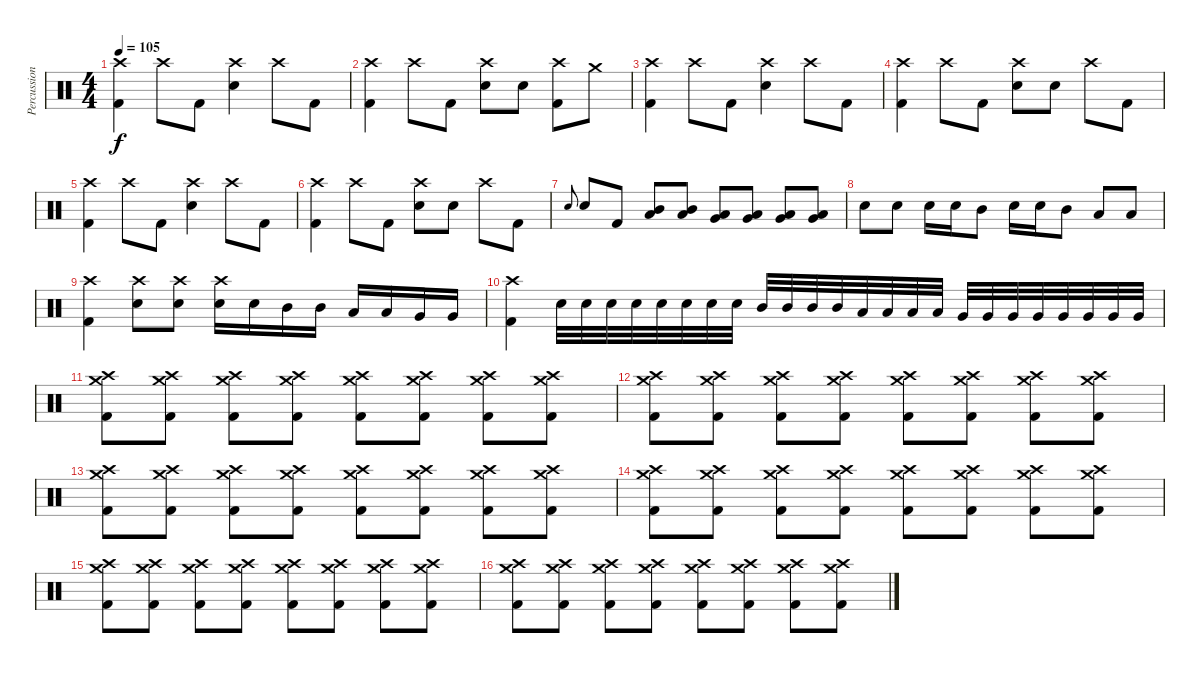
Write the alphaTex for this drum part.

\track ("Percussion" "Percussion") {instrument percussion}
\staff {score}
\articulation defaults
\ts (4 4)
\tempo 105
\clef neutral
\ks c
("Crash high (hit)" "Kick (hit) 2").4{dy f} "Crash high (hit)".8 "Kick (hit) 2".8 ("Crash high (hit)" "Electric Snare (hit)").4 "Crash high (hit)".8 "Kick (hit) 2".8 |
("Crash high (hit)" "Kick (hit) 2").4 "Crash high (hit)".8 "Kick (hit) 2".8 ("Crash high (hit)" "Electric Snare (hit)").8 "Electric Snare (hit)".8 ("Crash high (hit)" "Kick (hit) 2").8 "Crash medium (hit)".8 |
("Crash high (hit)" "Kick (hit) 2").4 "Crash high (hit)".8 "Kick (hit) 2".8 ("Crash high (hit)" "Electric Snare (hit)").4 "Crash high (hit)".8 "Kick (hit) 2".8 |
("Crash high (hit)" "Kick (hit) 2").4 "Crash high (hit)".8 "Kick (hit) 2".8 ("Crash high (hit)" "Electric Snare (hit)").8 "Electric Snare (hit)".8 "Crash high (hit)".8 "Kick (hit) 2".8 |
("Crash high (hit)" "Kick (hit) 2").4 "Crash high (hit)".8 "Kick (hit) 2".8 ("Crash high (hit)" "Electric Snare (hit)").4 "Crash high (hit)".8 "Kick (hit) 2".8 |
("Crash high (hit)" "Kick (hit) 2").4 "Crash high (hit)".8 "Kick (hit) 2".8 ("Crash high (hit)" "Electric Snare (hit)").8 "Electric Snare (hit)".8 "Crash high (hit)".8 "Kick (hit) 2".8 |
"Electric Snare (hit)".8{gr onbeat} "Electric Snare (hit)".8 "Kick (hit) 2".8 ("Low Tom (hit)" "Mid Tom (hit)").8 ("Low Tom (hit)" "Mid Tom (hit)").8 ("Very Low Tom (hit)" "Low Tom (hit)").8 ("Very Low Tom (hit)" "Low Tom (hit)").8 ("Low Floor Tom (hit)" "Very Low Tom (hit)").8 ("Low Floor Tom (hit)" "Very Low Tom (hit)").8 |
"Electric Snare (hit)".8 "Electric Snare (hit)".8 "Electric Snare (hit)".16 "Electric Snare (hit)".16 "Mid Tom (hit)".8 "Electric Snare (hit)".16 "Electric Snare (hit)".16 "Mid Tom (hit)".8 "Low Tom (hit)".8 "Low Tom (hit)".8 |
("Crash high (hit)" "Kick (hit) 2").4 ("Crash high (hit)" "Electric Snare (hit)").8 ("Crash high (hit)" "Electric Snare (hit)").8 ("Crash high (hit)" "Electric Snare (hit)").16 "Electric Snare (hit)".16 "Mid Tom (hit)".16 "Mid Tom (hit)".16 "Low Tom (hit)".16 "Low Tom (hit)".16 "Very Low Tom (hit)".16 "Very Low Tom (hit)".16 |
("Crash high (hit)" "Kick (hit) 2").4 "Electric Snare (hit)".32 "Electric Snare (hit)".32 "Electric Snare (hit)".32 "Electric Snare (hit)".32 "Electric Snare (hit)".32 "Electric Snare (hit)".32 "Electric Snare (hit)".32 "Electric Snare (hit)".32 "Mid Tom (hit)".32 "Mid Tom (hit)".32 "Mid Tom (hit)".32 "Mid Tom (hit)".32 "Low Tom (hit)".32 "Low Tom (hit)".32 "Low Tom (hit)".32 "Low Tom (hit)".32 "Very Low Tom (hit)".32 "Very Low Tom (hit)".32 "Very Low Tom (hit)".32 "Very Low Tom (hit)".32 "Very Low Tom (hit)".32 "Very Low Tom (hit)".32 "Very Low Tom (hit)".32 "Very Low Tom (hit)".32 |
("Crash high (hit)" "Crash medium (hit)" "Kick (hit) 2").8 ("Crash high (hit)" "Crash medium (hit)" "Kick (hit) 2").8 ("Crash high (hit)" "Crash medium (hit)" "Kick (hit) 2").8 ("Crash high (hit)" "Crash medium (hit)" "Kick (hit) 2").8 ("Crash high (hit)" "Crash medium (hit)" "Kick (hit) 2").8 ("Crash high (hit)" "Crash medium (hit)" "Kick (hit) 2").8 ("Crash high (hit)" "Crash medium (hit)" "Kick (hit) 2").8 ("Crash high (hit)" "Crash medium (hit)" "Kick (hit) 2").8 |
("Crash high (hit)" "Crash medium (hit)" "Kick (hit) 2").8 ("Crash high (hit)" "Crash medium (hit)" "Kick (hit) 2").8 ("Crash high (hit)" "Crash medium (hit)" "Kick (hit) 2").8 ("Crash high (hit)" "Crash medium (hit)" "Kick (hit) 2").8 ("Crash high (hit)" "Crash medium (hit)" "Kick (hit) 2").8 ("Crash high (hit)" "Crash medium (hit)" "Kick (hit) 2").8 ("Crash high (hit)" "Crash medium (hit)" "Kick (hit) 2").8 ("Crash high (hit)" "Crash medium (hit)" "Kick (hit) 2").8 |
("Crash high (hit)" "Crash medium (hit)" "Kick (hit) 2").8 ("Crash high (hit)" "Crash medium (hit)" "Kick (hit) 2").8 ("Crash high (hit)" "Crash medium (hit)" "Kick (hit) 2").8 ("Crash high (hit)" "Crash medium (hit)" "Kick (hit) 2").8 ("Crash high (hit)" "Crash medium (hit)" "Kick (hit) 2").8 ("Crash high (hit)" "Crash medium (hit)" "Kick (hit) 2").8 ("Crash high (hit)" "Crash medium (hit)" "Kick (hit) 2").8 ("Crash high (hit)" "Crash medium (hit)" "Kick (hit) 2").8 |
("Crash high (hit)" "Crash medium (hit)" "Kick (hit) 2").8 ("Crash high (hit)" "Crash medium (hit)" "Kick (hit) 2").8 ("Crash high (hit)" "Crash medium (hit)" "Kick (hit) 2").8 ("Crash high (hit)" "Crash medium (hit)" "Kick (hit) 2").8 ("Crash high (hit)" "Crash medium (hit)" "Kick (hit) 2").8 ("Crash high (hit)" "Crash medium (hit)" "Kick (hit) 2").8 ("Crash high (hit)" "Crash medium (hit)" "Kick (hit) 2").8 ("Crash high (hit)" "Crash medium (hit)" "Kick (hit) 2").8 |
("Crash high (hit)" "Crash medium (hit)" "Kick (hit) 2").8 ("Crash high (hit)" "Crash medium (hit)" "Kick (hit) 2").8 ("Crash high (hit)" "Crash medium (hit)" "Kick (hit) 2").8 ("Crash high (hit)" "Crash medium (hit)" "Kick (hit) 2").8 ("Crash high (hit)" "Crash medium (hit)" "Kick (hit) 2").8 ("Crash high (hit)" "Crash medium (hit)" "Kick (hit) 2").8 ("Crash high (hit)" "Crash medium (hit)" "Kick (hit) 2").8 ("Crash high (hit)" "Crash medium (hit)" "Kick (hit) 2").8 |
("Crash high (hit)" "Crash medium (hit)" "Kick (hit) 2").8 ("Crash high (hit)" "Crash medium (hit)" "Kick (hit) 2").8 ("Crash high (hit)" "Crash medium (hit)" "Kick (hit) 2").8 ("Crash high (hit)" "Crash medium (hit)" "Kick (hit) 2").8 ("Crash high (hit)" "Crash medium (hit)" "Kick (hit) 2").8 ("Crash high (hit)" "Crash medium (hit)" "Kick (hit) 2").8 ("Crash high (hit)" "Crash medium (hit)" "Kick (hit) 2").8 ("Crash high (hit)" "Crash medium (hit)" "Kick (hit) 2").8
